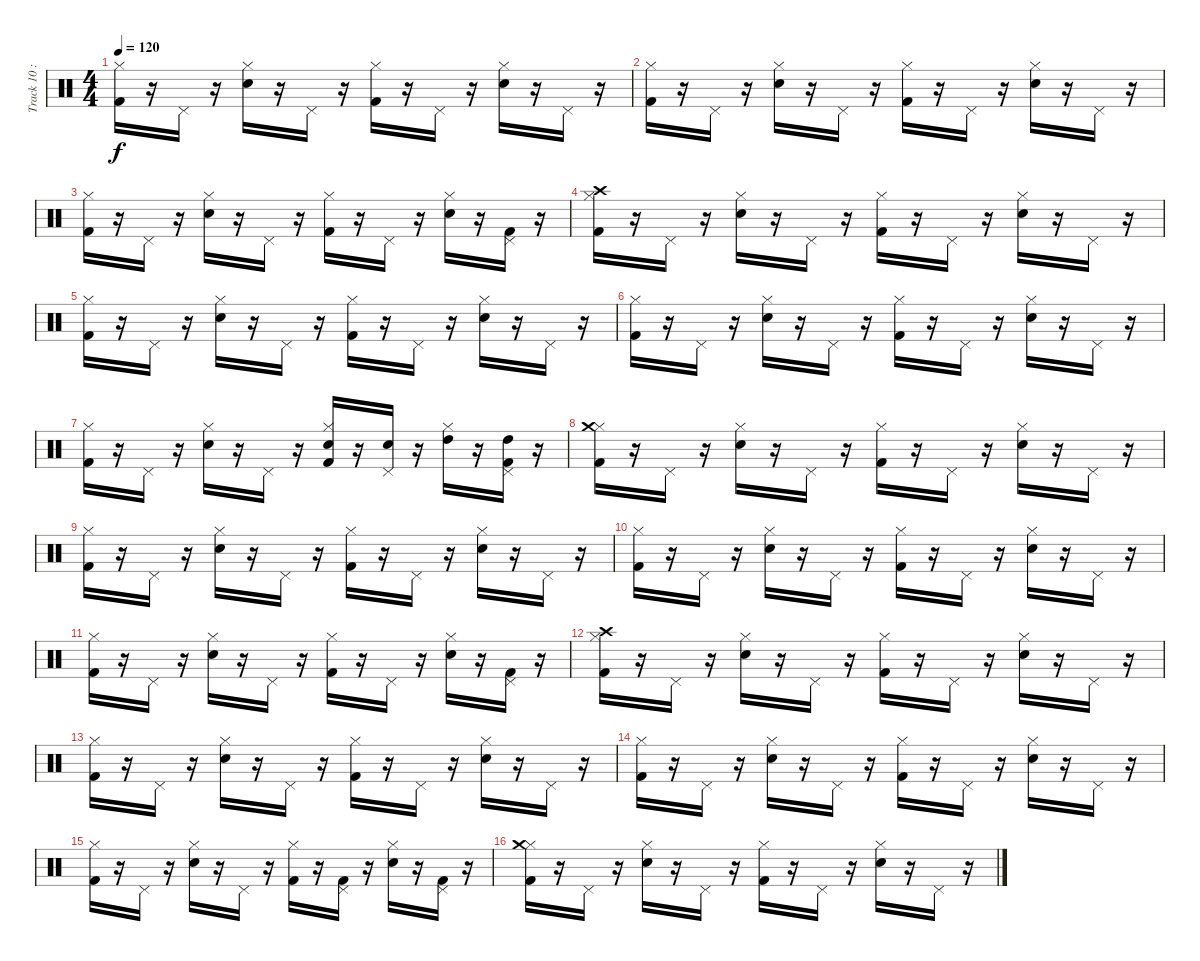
\track ("Track 10 : unspecified" "Track 10 :") {instrument percussion}
\staff {score}
\articulation defaults
\ts (4 4)
\tempo 120
\clef neutral
\ks c
("Kick (hit) 2" "Hi-Hat (closed)").16{dy f} r.16 "Pedal Hi-Hat (hit)".16 r.16 ("Electric Snare (hit)" "Hi-Hat (closed)").16 r.16 "Pedal Hi-Hat (hit)".16 r.16 ("Hi-Hat (closed)" "Kick (hit) 2").16 r.16 "Pedal Hi-Hat (hit)".16 r.16 ("Electric Snare (hit)" "Hi-Hat (closed)").16 r.16 "Pedal Hi-Hat (hit)".16 r.16 |
("Kick (hit) 2" "Hi-Hat (closed)").16 r.16 "Pedal Hi-Hat (hit)".16 r.16 ("Electric Snare (hit)" "Hi-Hat (closed)").16 r.16 "Pedal Hi-Hat (hit)".16 r.16 ("Kick (hit) 2" "Hi-Hat (closed)").16 r.16 "Pedal Hi-Hat (hit)".16 r.16 ("Electric Snare (hit)" "Hi-Hat (closed)").16 r.16 "Pedal Hi-Hat (hit)".16 r.16 |
("Kick (hit) 2" "Hi-Hat (closed)").16 r.16 "Pedal Hi-Hat (hit)".16 r.16 ("Electric Snare (hit)" "Hi-Hat (closed)").16 r.16 "Pedal Hi-Hat (hit)".16 r.16 ("Hi-Hat (closed)" "Kick (hit) 2").16 r.16 "Pedal Hi-Hat (hit)".16 r.16 ("Electric Snare (hit)" "Hi-Hat (closed)").16 r.16 ("Pedal Hi-Hat (hit)" "Kick (hit) 2").16 r.16 |
("Hi-Hat (closed)" "Crash high (hit)" "Kick (hit) 2").16 r.16 "Pedal Hi-Hat (hit)".16 r.16 ("Hi-Hat (closed)" "Electric Snare (hit)").16 r.16 "Pedal Hi-Hat (hit)".16 r.16 ("Hi-Hat (closed)" "Kick (hit) 2").16 r.16 "Pedal Hi-Hat (hit)".16 r.16 ("Electric Snare (hit)" "Hi-Hat (closed)").16 r.16 "Pedal Hi-Hat (hit)".16 r.16 |
("Kick (hit) 2" "Hi-Hat (closed)").16 r.16 "Pedal Hi-Hat (hit)".16 r.16 ("Electric Snare (hit)" "Hi-Hat (closed)").16 r.16 "Pedal Hi-Hat (hit)".16 r.16 ("Hi-Hat (closed)" "Kick (hit) 2").16 r.16 "Pedal Hi-Hat (hit)".16 r.16 ("Electric Snare (hit)" "Hi-Hat (closed)").16 r.16 "Pedal Hi-Hat (hit)".16 r.16 |
("Kick (hit) 2" "Hi-Hat (closed)").16 r.16 "Pedal Hi-Hat (hit)".16 r.16 ("Electric Snare (hit)" "Hi-Hat (closed)").16 r.16 "Pedal Hi-Hat (hit)".16 r.16 ("Kick (hit) 2" "Hi-Hat (closed)").16 r.16 "Pedal Hi-Hat (hit)".16 r.16 ("Electric Snare (hit)" "Hi-Hat (closed)").16 r.16 "Pedal Hi-Hat (hit)".16 r.16 |
("Kick (hit) 2" "Hi-Hat (closed)").16 r.16 "Pedal Hi-Hat (hit)".16 r.16 ("Electric Snare (hit)" "Hi-Hat (closed)").16 r.16 "Pedal Hi-Hat (hit)".16 r.16 ("Electric Snare (hit)" "Hi-Hat (closed)" "Kick (hit) 2").16 r.16 ("Electric Snare (hit)" "Pedal Hi-Hat (hit)").16 r.16 ("High Tom (hit)" "Hi-Hat (closed)").16 r.16 ("High Tom (hit)" "Pedal Hi-Hat (hit)" "Kick (hit) 2").16 r.16 |
("Hi-Hat (closed)" "Crash medium (hit)" "Kick (hit) 2").16 r.16 "Pedal Hi-Hat (hit)".16 r.16 ("Hi-Hat (closed)" "Electric Snare (hit)").16 r.16 "Pedal Hi-Hat (hit)".16 r.16 ("Hi-Hat (closed)" "Kick (hit) 2").16 r.16 "Pedal Hi-Hat (hit)".16 r.16 ("Electric Snare (hit)" "Hi-Hat (closed)").16 r.16 "Pedal Hi-Hat (hit)".16 r.16 |
("Kick (hit) 2" "Hi-Hat (closed)").16 r.16 "Pedal Hi-Hat (hit)".16 r.16 ("Electric Snare (hit)" "Hi-Hat (closed)").16 r.16 "Pedal Hi-Hat (hit)".16 r.16 ("Hi-Hat (closed)" "Kick (hit) 2").16 r.16 "Pedal Hi-Hat (hit)".16 r.16 ("Electric Snare (hit)" "Hi-Hat (closed)").16 r.16 "Pedal Hi-Hat (hit)".16 r.16 |
("Kick (hit) 2" "Hi-Hat (closed)").16 r.16 "Pedal Hi-Hat (hit)".16 r.16 ("Electric Snare (hit)" "Hi-Hat (closed)").16 r.16 "Pedal Hi-Hat (hit)".16 r.16 ("Kick (hit) 2" "Hi-Hat (closed)").16 r.16 "Pedal Hi-Hat (hit)".16 r.16 ("Electric Snare (hit)" "Hi-Hat (closed)").16 r.16 "Pedal Hi-Hat (hit)".16 r.16 |
("Kick (hit) 2" "Hi-Hat (closed)").16 r.16 "Pedal Hi-Hat (hit)".16 r.16 ("Electric Snare (hit)" "Hi-Hat (closed)").16 r.16 "Pedal Hi-Hat (hit)".16 r.16 ("Hi-Hat (closed)" "Kick (hit) 2").16 r.16 "Pedal Hi-Hat (hit)".16 r.16 ("Electric Snare (hit)" "Hi-Hat (closed)").16 r.16 ("Pedal Hi-Hat (hit)" "Kick (hit) 2").16 r.16 |
("Hi-Hat (closed)" "Crash high (hit)" "Kick (hit) 2").16 r.16 "Pedal Hi-Hat (hit)".16 r.16 ("Hi-Hat (closed)" "Electric Snare (hit)").16 r.16 "Pedal Hi-Hat (hit)".16 r.16 ("Hi-Hat (closed)" "Kick (hit) 2").16 r.16 "Pedal Hi-Hat (hit)".16 r.16 ("Electric Snare (hit)" "Hi-Hat (closed)").16 r.16 "Pedal Hi-Hat (hit)".16 r.16 |
("Kick (hit) 2" "Hi-Hat (closed)").16 r.16 "Pedal Hi-Hat (hit)".16 r.16 ("Electric Snare (hit)" "Hi-Hat (closed)").16 r.16 "Pedal Hi-Hat (hit)".16 r.16 ("Hi-Hat (closed)" "Kick (hit) 2").16 r.16 "Pedal Hi-Hat (hit)".16 r.16 ("Electric Snare (hit)" "Hi-Hat (closed)").16 r.16 "Pedal Hi-Hat (hit)".16 r.16 |
("Kick (hit) 2" "Hi-Hat (closed)").16 r.16 "Pedal Hi-Hat (hit)".16 r.16 ("Electric Snare (hit)" "Hi-Hat (closed)").16 r.16 "Pedal Hi-Hat (hit)".16 r.16 ("Kick (hit) 2" "Hi-Hat (closed)").16 r.16 "Pedal Hi-Hat (hit)".16 r.16 ("Electric Snare (hit)" "Hi-Hat (closed)").16 r.16 "Pedal Hi-Hat (hit)".16 r.16 |
("Kick (hit) 2" "Hi-Hat (closed)").16 r.16 "Pedal Hi-Hat (hit)".16 r.16 ("Electric Snare (hit)" "Hi-Hat (closed)").16 r.16 "Pedal Hi-Hat (hit)".16 r.16 ("Hi-Hat (closed)" "Kick (hit) 2").16 r.16 ("Kick (hit) 2" "Pedal Hi-Hat (hit)").16 r.16 ("Electric Snare (hit)" "Hi-Hat (closed)").16 r.16 ("Pedal Hi-Hat (hit)" "Kick (hit) 2").16 r.16 |
("Hi-Hat (closed)" "Crash medium (hit)" "Kick (hit) 2").16 r.16 "Pedal Hi-Hat (hit)".16 r.16 ("Hi-Hat (closed)" "Electric Snare (hit)").16 r.16 "Pedal Hi-Hat (hit)".16 r.16 ("Hi-Hat (closed)" "Kick (hit) 2").16 r.16 "Pedal Hi-Hat (hit)".16 r.16 ("Electric Snare (hit)" "Hi-Hat (closed)").16 r.16 "Pedal Hi-Hat (hit)".16 r.16
